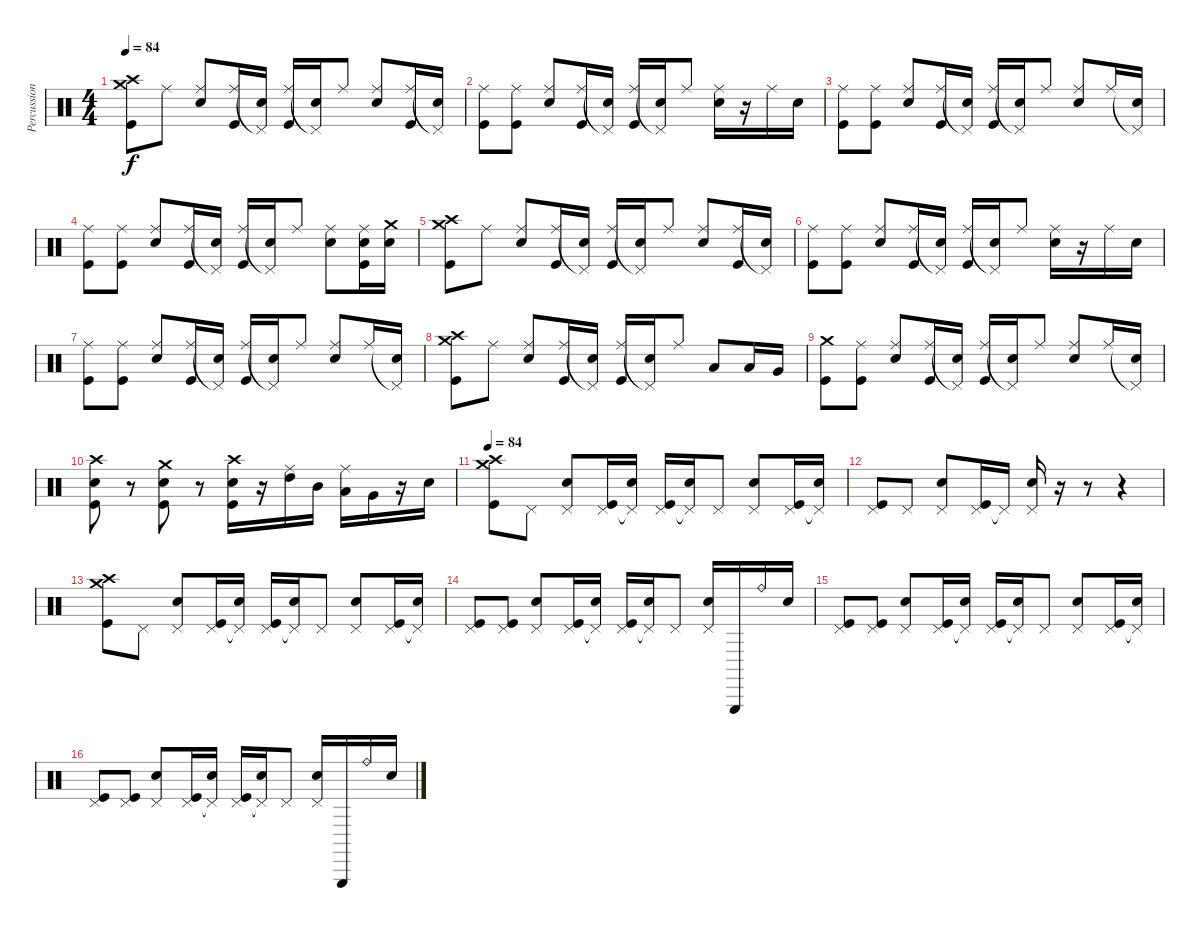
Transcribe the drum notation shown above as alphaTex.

\track ("Percussion" "Percussion") {instrument percussion}
\staff {score}
\articulation defaults
\ts (4 4)
\tempo 84
\clef neutral
\ks c
("Crash medium (hit)" "Crash high (hit)" "Kick (hit)").8{dy f} "Ride (middle)".8 ("Ride (middle)" "Electric Snare (hit)").8 ("Ride (middle)" "Kick (hit)").16 ("Pedal Hi-Hat (hit)"{t} "Electric Snare (hit)").16 ("Ride (middle)" "Kick (hit)").16 ("Pedal Hi-Hat (hit)"{t} "Electric Snare (hit)").16 "Ride (middle)".8 ("Ride (middle)" "Electric Snare (hit)").8 ("Ride (middle)" "Kick (hit)").16 ("Pedal Hi-Hat (hit)"{t} "Electric Snare (hit)").16 |
("Ride (middle)" "Kick (hit)").8 ("Ride (middle)" "Kick (hit)").8 ("Ride (middle)" "Electric Snare (hit)").8 ("Ride (middle)" "Kick (hit)").16 ("Pedal Hi-Hat (hit)"{t} "Electric Snare (hit)").16 ("Ride (middle)" "Kick (hit)").16 ("Pedal Hi-Hat (hit)"{t} "Electric Snare (hit)").16 "Ride (middle)".8 ("Ride (middle)" "Electric Snare (hit)").16 r.16 "Ride (middle)".16 "Electric Snare (hit)".16 |
("Ride (middle)" "Kick (hit)").8 ("Ride (middle)" "Kick (hit)").8 ("Ride (middle)" "Electric Snare (hit)").8 ("Ride (middle)" "Kick (hit)").16 ("Pedal Hi-Hat (hit)"{t} "Electric Snare (hit)").16 ("Ride (middle)" "Kick (hit)").16 ("Pedal Hi-Hat (hit)"{t} "Electric Snare (hit)").16 "Ride (middle)".8 ("Ride (middle)" "Electric Snare (hit)").8 "Ride (middle)".16 ("Pedal Hi-Hat (hit)"{t} "Electric Snare (hit)").16 |
("Ride (middle)" "Kick (hit)").8 ("Ride (middle)" "Kick (hit)").8 ("Ride (middle)" "Electric Snare (hit)").8 ("Ride (middle)" "Kick (hit)").16 ("Pedal Hi-Hat (hit)"{t} "Electric Snare (hit)").16 ("Ride (middle)" "Kick (hit)").16 ("Pedal Hi-Hat (hit)"{t} "Electric Snare (hit)").16 "Ride (middle)".8 ("Ride (middle)" "Electric Snare (hit)").8 ("Ride (middle)" "Electric Snare (hit)" "Kick (hit)").16 ("Crash medium (hit)" "Electric Snare (hit)").16 |
("Crash medium (hit)" "Crash high (hit)" "Kick (hit)").8 "Ride (middle)".8 ("Ride (middle)" "Electric Snare (hit)").8 ("Ride (middle)" "Kick (hit)").16 ("Pedal Hi-Hat (hit)"{t} "Electric Snare (hit)").16 ("Ride (middle)" "Kick (hit)").16 ("Pedal Hi-Hat (hit)"{t} "Electric Snare (hit)").16 "Ride (middle)".8 ("Ride (middle)" "Electric Snare (hit)").8 ("Ride (middle)" "Kick (hit)").16 ("Pedal Hi-Hat (hit)"{t} "Electric Snare (hit)").16 |
("Ride (middle)" "Kick (hit)").8 ("Ride (middle)" "Kick (hit)").8 ("Ride (middle)" "Electric Snare (hit)").8 ("Ride (middle)" "Kick (hit)").16 ("Pedal Hi-Hat (hit)"{t} "Electric Snare (hit)").16 ("Ride (middle)" "Kick (hit)").16 ("Pedal Hi-Hat (hit)"{t} "Electric Snare (hit)").16 "Ride (middle)".8 ("Ride (middle)" "Electric Snare (hit)").16 r.16 "Ride (middle)".16 "Electric Snare (hit)".16 |
("Ride (middle)" "Kick (hit)").8 ("Ride (middle)" "Kick (hit)").8 ("Ride (middle)" "Electric Snare (hit)").8 ("Ride (middle)" "Kick (hit)").16 ("Pedal Hi-Hat (hit)"{t} "Electric Snare (hit)").16 ("Ride (middle)" "Kick (hit)").16 ("Pedal Hi-Hat (hit)"{t} "Electric Snare (hit)").16 "Ride (middle)".8 ("Ride (middle)" "Electric Snare (hit)").8 "Ride (middle)".16 ("Pedal Hi-Hat (hit)"{t} "Electric Snare (hit)").16 |
("Crash medium (hit)" "Crash high (hit)" "Kick (hit)").8 "Ride (middle)".8 ("Ride (middle)" "Electric Snare (hit)").8 ("Ride (middle)" "Kick (hit)").16 ("Pedal Hi-Hat (hit)"{t} "Electric Snare (hit)").16 ("Ride (middle)" "Kick (hit)").16 ("Pedal Hi-Hat (hit)"{t} "Electric Snare (hit)").16 "Ride (middle)".8 "Low Tom (hit)".8 "Low Tom (hit)".16 "Very Low Tom (hit)".16 |
("Crash medium (hit)" "Kick (hit)").8 ("Ride (middle)" "Kick (hit)").8 ("Ride (middle)" "Electric Snare (hit)").8 ("Ride (middle)" "Kick (hit)").16 ("Pedal Hi-Hat (hit)"{t} "Electric Snare (hit)").16 ("Ride (middle)" "Kick (hit)").16 ("Pedal Hi-Hat (hit)"{t} "Electric Snare (hit)").16 "Ride (middle)".8 ("Ride (middle)" "Electric Snare (hit)").8 "Ride (middle)".16 ("Pedal Hi-Hat (hit)"{t} "Electric Snare (hit)").16 |
("Crash high (hit)" "Electric Snare (hit)" "Kick (hit)").8 r.8 ("Crash medium (hit)" "Electric Snare (hit)" "Kick (hit)").8 r.8 ("Crash high (hit)" "Electric Snare (hit)" "Kick (hit)").16 r.16 ("Ride (middle)" "High Tom (hit)").16 "Mid Tom (hit)".16 ("Ride (middle)" "Low Tom (hit)").16 "Very Low Tom (hit)".16 r.16 "Electric Snare (hit)".16 |
\tempo 84
("Crash medium (hit)" "Crash high (hit)" "Kick (hit)").8 "Pedal Hi-Hat (hit)".8 ("Pedal Hi-Hat (hit)" "Electric Snare (hit)").8 ("Pedal Hi-Hat (hit)" "Kick (hit)").16 ("Pedal Hi-Hat (hit)"{t} "Electric Snare (hit)").16 ("Pedal Hi-Hat (hit)" "Kick (hit)").16 ("Pedal Hi-Hat (hit)"{t} "Electric Snare (hit)").16 "Pedal Hi-Hat (hit)".8 ("Pedal Hi-Hat (hit)" "Electric Snare (hit)").8 ("Pedal Hi-Hat (hit)" "Kick (hit)").16 ("Pedal Hi-Hat (hit)"{t} "Electric Snare (hit)").16 |
("Pedal Hi-Hat (hit)" "Kick (hit)").8 "Pedal Hi-Hat (hit)".8 ("Pedal Hi-Hat (hit)" "Electric Snare (hit)").8 ("Pedal Hi-Hat (hit)" "Kick (hit)").16 "Pedal Hi-Hat (hit)"{t}.16 ("Pedal Hi-Hat (hit)" "Electric Snare (hit)").16 r.16 r.8 r.4 |
("Crash medium (hit)" "Crash high (hit)" "Kick (hit)").8 "Pedal Hi-Hat (hit)".8 ("Pedal Hi-Hat (hit)" "Electric Snare (hit)").8 ("Pedal Hi-Hat (hit)" "Kick (hit)").16 ("Pedal Hi-Hat (hit)"{t} "Electric Snare (hit)").16 ("Pedal Hi-Hat (hit)" "Kick (hit)").16 ("Pedal Hi-Hat (hit)"{t} "Electric Snare (hit)").16 "Pedal Hi-Hat (hit)".8 ("Pedal Hi-Hat (hit)" "Electric Snare (hit)").8 ("Pedal Hi-Hat (hit)" "Kick (hit)").16 ("Pedal Hi-Hat (hit)"{t} "Electric Snare (hit)").16 |
("Pedal Hi-Hat (hit)" "Kick (hit)").8 ("Pedal Hi-Hat (hit)" "Kick (hit)").8 ("Pedal Hi-Hat (hit)" "Electric Snare (hit)").8 ("Pedal Hi-Hat (hit)" "Kick (hit)").16 ("Pedal Hi-Hat (hit)"{t} "Electric Snare (hit)").16 ("Pedal Hi-Hat (hit)" "Kick (hit)").16 ("Pedal Hi-Hat (hit)"{t} "Electric Snare (hit)").16 "Pedal Hi-Hat (hit)".8 ("Pedal Hi-Hat (hit)" "Electric Snare (hit)").16 "Triangle (hit)".16 "Ride (bell)".16 "Electric Snare (hit)".16 |
("Pedal Hi-Hat (hit)" "Kick (hit)").8 ("Pedal Hi-Hat (hit)" "Kick (hit)").8 ("Pedal Hi-Hat (hit)" "Electric Snare (hit)").8 ("Pedal Hi-Hat (hit)" "Kick (hit)").16 ("Pedal Hi-Hat (hit)"{t} "Electric Snare (hit)").16 ("Pedal Hi-Hat (hit)" "Kick (hit)").16 ("Pedal Hi-Hat (hit)"{t} "Electric Snare (hit)").16 "Pedal Hi-Hat (hit)".8 ("Pedal Hi-Hat (hit)" "Electric Snare (hit)").8 ("Pedal Hi-Hat (hit)" "Kick (hit)").16 ("Pedal Hi-Hat (hit)"{t} "Electric Snare (hit)").16 |
("Pedal Hi-Hat (hit)" "Kick (hit)").8 ("Pedal Hi-Hat (hit)" "Kick (hit)").8 ("Pedal Hi-Hat (hit)" "Electric Snare (hit)").8 ("Pedal Hi-Hat (hit)" "Kick (hit)").16 ("Pedal Hi-Hat (hit)"{t} "Electric Snare (hit)").16 ("Pedal Hi-Hat (hit)" "Kick (hit)").16 ("Pedal Hi-Hat (hit)"{t} "Electric Snare (hit)").16 "Pedal Hi-Hat (hit)".8 ("Pedal Hi-Hat (hit)" "Electric Snare (hit)").16 "Triangle (hit)".16 "Ride (bell)".16 "Electric Snare (hit)".16
